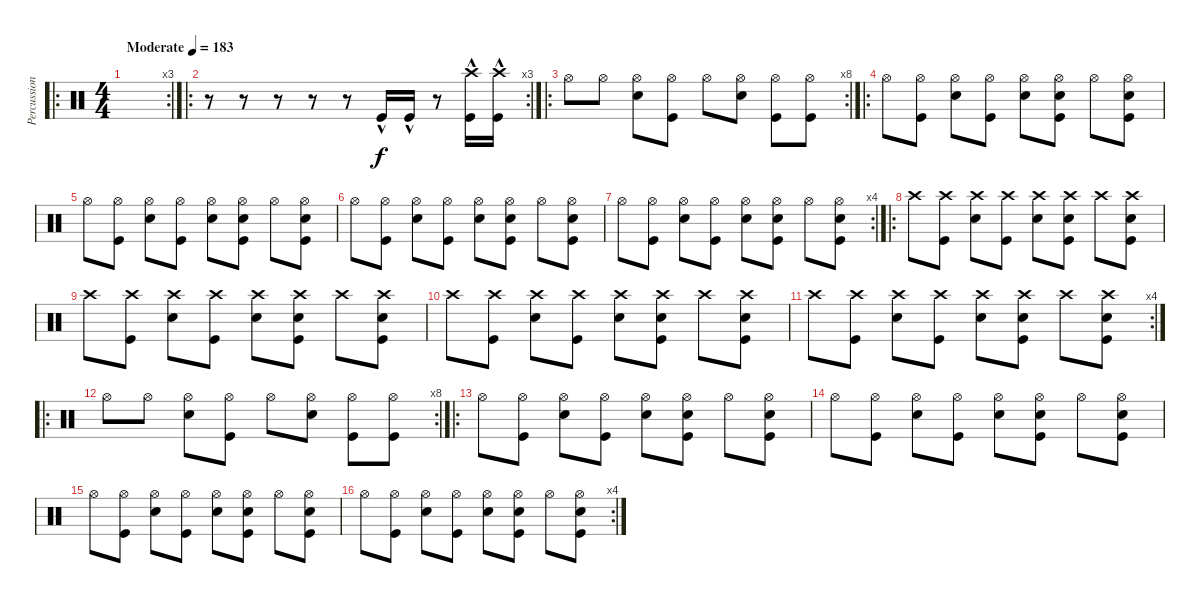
\track ("Percussion" "Percussion") {instrument percussion}
\staff
\articulation defaults
\ro
\rc 3
\ts (4 4)
\tempo (183 "Moderate")
\clef neutral
\ks c
|
\ro
\rc 3
r.8 r.8 r.8 r.8 r.8 "Kick (hit)"{hac}.16 "Kick (hit)"{hac}.16 r.8 ("Crash high (hit)" "Kick (hit)"{hac}).16 ("Crash high (hit)" "Kick (hit)"{hac}).16 |
\ro
\rc 8 "Hi-Hat (open)".8{dy f} "Hi-Hat (open)".8
("Hi-Hat (open)" "Snare (hit) 2").8 ("Hi-Hat (open)" "Kick (hit)").8 "Hi-Hat (open)".8 ("Hi-Hat (open)" "Snare (hit) 2").8 ("Hi-Hat (open)" "Kick (hit)").8 ("Hi-Hat (open)" "Kick (hit)").8 |
\ro "Hi-Hat (open)".8
("Hi-Hat (open)" "Kick (hit)").8 ("Hi-Hat (open)" "Snare (hit) 2").8 ("Hi-Hat (open)" "Kick (hit)").8 ("Hi-Hat (open)" "Snare (hit) 2").8 ("Hi-Hat (open)" "Snare (hit) 2" "Kick (hit)").8 "Hi-Hat (open)".8 ("Hi-Hat (open)" "Snare (hit) 2" "Kick (hit)").8 |
"Hi-Hat (open)".8 ("Hi-Hat (open)" "Kick (hit)").8 ("Hi-Hat (open)" "Snare (hit) 2").8 ("Hi-Hat (open)" "Kick (hit)").8 ("Hi-Hat (open)" "Snare (hit) 2").8 ("Hi-Hat (open)" "Snare (hit) 2" "Kick (hit)").8 "Hi-Hat (open)".8 ("Hi-Hat (open)" "Snare (hit) 2" "Kick (hit)").8 |
"Hi-Hat (open)".8 ("Hi-Hat (open)" "Kick (hit)").8 ("Hi-Hat (open)" "Snare (hit) 2").8 ("Hi-Hat (open)" "Kick (hit)").8 ("Hi-Hat (open)" "Snare (hit) 2").8 ("Hi-Hat (open)" "Snare (hit) 2" "Kick (hit)").8 "Hi-Hat (open)".8 ("Hi-Hat (open)" "Snare (hit) 2" "Kick (hit)").8 |
\rc 4 "Hi-Hat (open)".8
("Hi-Hat (open)" "Kick (hit)").8 ("Hi-Hat (open)" "Snare (hit) 2").8 ("Hi-Hat (open)" "Kick (hit)").8 ("Hi-Hat (open)" "Snare (hit) 2").8 ("Hi-Hat (open)" "Snare (hit) 2" "Kick (hit)").8 "Hi-Hat (open)".8 ("Hi-Hat (open)" "Snare (hit) 2" "Kick (hit)").8 |
\ro "Crash high (hit)".8
("Crash high (hit)" "Kick (hit)").8 ("Crash high (hit)" "Snare (hit) 2").8 ("Crash high (hit)" "Kick (hit)").8 ("Crash high (hit)" "Snare (hit) 2").8 ("Crash high (hit)" "Snare (hit) 2" "Kick (hit)").8 "Crash high (hit)".8 ("Crash high (hit)" "Snare (hit) 2" "Kick (hit)").8 |
"Crash high (hit)".8 ("Crash high (hit)" "Kick (hit)").8 ("Crash high (hit)" "Snare (hit) 2").8 ("Crash high (hit)" "Kick (hit)").8 ("Crash high (hit)" "Snare (hit) 2").8 ("Crash high (hit)" "Snare (hit) 2" "Kick (hit)").8 "Crash high (hit)".8 ("Crash high (hit)" "Snare (hit) 2" "Kick (hit)").8 |
"Crash high (hit)".8 ("Crash high (hit)" "Kick (hit)").8 ("Crash high (hit)" "Snare (hit) 2").8 ("Crash high (hit)" "Kick (hit)").8 ("Crash high (hit)" "Snare (hit) 2").8 ("Crash high (hit)" "Snare (hit) 2" "Kick (hit)").8 "Crash high (hit)".8 ("Crash high (hit)" "Snare (hit) 2" "Kick (hit)").8 |
\rc 4 "Crash high (hit)".8
("Crash high (hit)" "Kick (hit)").8 ("Crash high (hit)" "Snare (hit) 2").8 ("Crash high (hit)" "Kick (hit)").8 ("Crash high (hit)" "Snare (hit) 2").8 ("Crash high (hit)" "Snare (hit) 2" "Kick (hit)").8 "Crash high (hit)".8 ("Crash high (hit)" "Snare (hit) 2" "Kick (hit)").8 |
\ro
\rc 8 "Hi-Hat (open)".8 "Hi-Hat (open)".8
("Hi-Hat (open)" "Snare (hit) 2").8 ("Hi-Hat (open)" "Kick (hit)").8 "Hi-Hat (open)".8 ("Hi-Hat (open)" "Snare (hit) 2").8 ("Hi-Hat (open)" "Kick (hit)").8 ("Hi-Hat (open)" "Kick (hit)").8 |
\ro "Hi-Hat (open)".8
("Hi-Hat (open)" "Kick (hit)").8 ("Hi-Hat (open)" "Snare (hit) 2").8 ("Hi-Hat (open)" "Kick (hit)").8 ("Hi-Hat (open)" "Snare (hit) 2").8 ("Hi-Hat (open)" "Snare (hit) 2" "Kick (hit)").8 "Hi-Hat (open)".8 ("Hi-Hat (open)" "Snare (hit) 2" "Kick (hit)").8 |
"Hi-Hat (open)".8 ("Hi-Hat (open)" "Kick (hit)").8 ("Hi-Hat (open)" "Snare (hit) 2").8 ("Hi-Hat (open)" "Kick (hit)").8 ("Hi-Hat (open)" "Snare (hit) 2").8 ("Hi-Hat (open)" "Snare (hit) 2" "Kick (hit)").8 "Hi-Hat (open)".8 ("Hi-Hat (open)" "Snare (hit) 2" "Kick (hit)").8 |
"Hi-Hat (open)".8 ("Hi-Hat (open)" "Kick (hit)").8 ("Hi-Hat (open)" "Snare (hit) 2").8 ("Hi-Hat (open)" "Kick (hit)").8 ("Hi-Hat (open)" "Snare (hit) 2").8 ("Hi-Hat (open)" "Snare (hit) 2" "Kick (hit)").8 "Hi-Hat (open)".8 ("Hi-Hat (open)" "Snare (hit) 2" "Kick (hit)").8 |
\rc 4 "Hi-Hat (open)".8
("Hi-Hat (open)" "Kick (hit)").8 ("Hi-Hat (open)" "Snare (hit) 2").8 ("Hi-Hat (open)" "Kick (hit)").8 ("Hi-Hat (open)" "Snare (hit) 2").8 ("Hi-Hat (open)" "Snare (hit) 2" "Kick (hit)").8 "Hi-Hat (open)".8 ("Hi-Hat (open)" "Snare (hit) 2" "Kick (hit)").8
